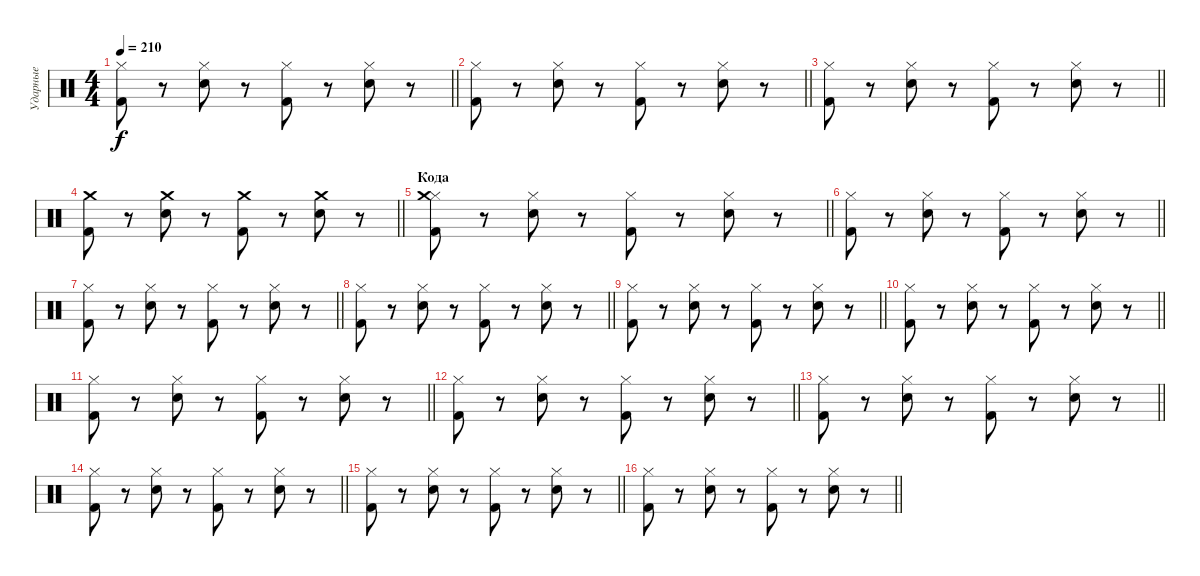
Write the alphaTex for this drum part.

\track ("Ударные" "Ударные") {instrument percussion}
\staff {score}
\articulation defaults
\ts (4 4)
\tempo 210
\clef neutral
\barLineRight lightlight
\ks c
("Kick (hit) 2" "Hi-Hat (closed)").8{dy f} r.8 ("Snare (hit) 2" "Hi-Hat (closed)").8 r.8 ("Kick (hit) 2" "Hi-Hat (closed)").8 r.8 ("Snare (hit) 2" "Hi-Hat (closed)").8 r.8 |
\barLineRight lightlight
("Kick (hit) 2" "Hi-Hat (closed)").8 r.8 ("Snare (hit) 2" "Hi-Hat (closed)").8 r.8 ("Kick (hit) 2" "Hi-Hat (closed)").8 r.8 ("Snare (hit) 2" "Hi-Hat (closed)").8 r.8 |
\barLineRight lightlight
("Kick (hit) 2" "Hi-Hat (closed)").8 r.8 ("Snare (hit) 2" "Hi-Hat (closed)").8 r.8 ("Kick (hit) 2" "Hi-Hat (closed)").8 r.8 ("Snare (hit) 2" "Hi-Hat (closed)").8 r.8 |
\barLineRight lightlight
("Kick (hit) 2" "Crash medium (hit)").8 r.8 ("Snare (hit) 2" "Crash medium (hit)").8 r.8 ("Kick (hit) 2" "Crash medium (hit)").8 r.8 ("Snare (hit) 2" "Crash medium (hit)").8 r.8 |
\section ("" "Кода")
\barLineRight lightlight
("Kick (hit) 2" "Hi-Hat (closed)" "Crash medium (hit)").8 r.8 ("Snare (hit) 2" "Hi-Hat (closed)").8 r.8 ("Kick (hit) 2" "Hi-Hat (closed)").8 r.8 ("Snare (hit) 2" "Hi-Hat (closed)").8 r.8 |
\barLineRight lightlight
("Kick (hit) 2" "Hi-Hat (closed)").8 r.8 ("Snare (hit) 2" "Hi-Hat (closed)").8 r.8 ("Kick (hit) 2" "Hi-Hat (closed)").8 r.8 ("Snare (hit) 2" "Hi-Hat (closed)").8 r.8 |
\barLineRight lightlight
("Kick (hit) 2" "Hi-Hat (closed)").8 r.8 ("Snare (hit) 2" "Hi-Hat (closed)").8 r.8 ("Kick (hit) 2" "Hi-Hat (closed)").8 r.8 ("Snare (hit) 2" "Hi-Hat (closed)").8 r.8 |
\barLineRight lightlight
("Kick (hit) 2" "Hi-Hat (closed)").8 r.8 ("Snare (hit) 2" "Hi-Hat (closed)").8 r.8 ("Kick (hit) 2" "Hi-Hat (closed)").8 r.8 ("Snare (hit) 2" "Hi-Hat (closed)").8 r.8 |
\barLineRight lightlight
("Kick (hit) 2" "Hi-Hat (closed)").8 r.8 ("Snare (hit) 2" "Hi-Hat (closed)").8 r.8 ("Kick (hit) 2" "Hi-Hat (closed)").8 r.8 ("Snare (hit) 2" "Hi-Hat (closed)").8 r.8 |
\barLineRight lightlight
("Kick (hit) 2" "Hi-Hat (closed)").8 r.8 ("Snare (hit) 2" "Hi-Hat (closed)").8 r.8 ("Kick (hit) 2" "Hi-Hat (closed)").8 r.8 ("Snare (hit) 2" "Hi-Hat (closed)").8 r.8 |
\barLineRight lightlight
("Kick (hit) 2" "Hi-Hat (closed)").8 r.8 ("Snare (hit) 2" "Hi-Hat (closed)").8 r.8 ("Kick (hit) 2" "Hi-Hat (closed)").8 r.8 ("Snare (hit) 2" "Hi-Hat (closed)").8 r.8 |
\barLineRight lightlight
("Kick (hit) 2" "Hi-Hat (closed)").8 r.8 ("Snare (hit) 2" "Hi-Hat (closed)").8 r.8 ("Kick (hit) 2" "Hi-Hat (closed)").8 r.8 ("Snare (hit) 2" "Hi-Hat (closed)").8 r.8 |
\barLineRight lightlight
("Kick (hit) 2" "Hi-Hat (closed)").8 r.8 ("Snare (hit) 2" "Hi-Hat (closed)").8 r.8 ("Kick (hit) 2" "Hi-Hat (closed)").8 r.8 ("Snare (hit) 2" "Hi-Hat (closed)").8 r.8 |
\barLineRight lightlight
("Kick (hit) 2" "Hi-Hat (closed)").8 r.8 ("Snare (hit) 2" "Hi-Hat (closed)").8 r.8 ("Kick (hit) 2" "Hi-Hat (closed)").8 r.8 ("Snare (hit) 2" "Hi-Hat (closed)").8 r.8 |
\barLineRight lightlight
("Kick (hit) 2" "Hi-Hat (closed)").8 r.8 ("Snare (hit) 2" "Hi-Hat (closed)").8 r.8 ("Kick (hit) 2" "Hi-Hat (closed)").8 r.8 ("Snare (hit) 2" "Hi-Hat (closed)").8 r.8 |
\barLineRight lightlight
("Kick (hit) 2" "Hi-Hat (closed)").8 r.8 ("Snare (hit) 2" "Hi-Hat (closed)").8 r.8 ("Kick (hit) 2" "Hi-Hat (closed)").8 r.8 ("Snare (hit) 2" "Hi-Hat (closed)").8 r.8
